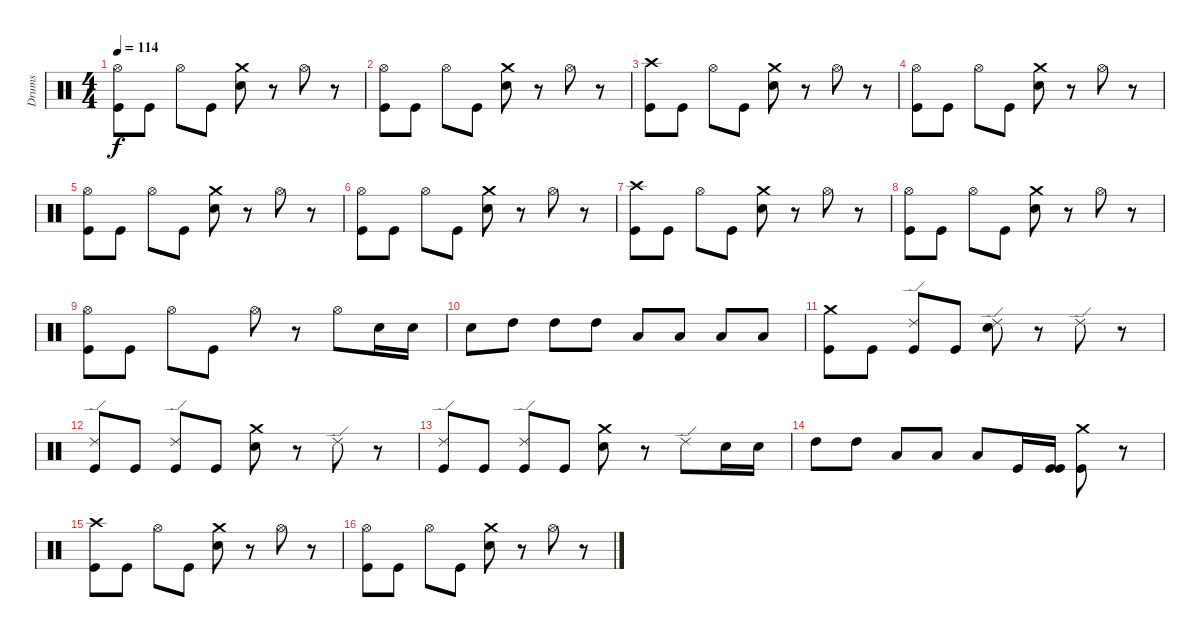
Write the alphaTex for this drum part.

\track ("Drums" "Drums") {instrument percussion}
\staff {score}
\articulation defaults
\ts (4 4)
\tempo 114
\clef neutral
\ks c
("Kick (hit)" "Hi-Hat (open)").8{dy f} "Kick (hit)".8 "Hi-Hat (open)".8 "Kick (hit)".8 ("Crash medium (hit)" "Electric Snare (hit)").8 r.8 "Hi-Hat (open)".8 r.8 |
("Kick (hit)" "Hi-Hat (open)").8 "Kick (hit)".8 "Hi-Hat (open)".8 "Kick (hit)".8 ("Crash medium (hit)" "Electric Snare (hit)").8 r.8 "Hi-Hat (open)".8 r.8 |
("Crash high (hit)" "Kick (hit)").8 "Kick (hit)".8 "Hi-Hat (open)".8 "Kick (hit)".8 ("Crash medium (hit)" "Electric Snare (hit)").8 r.8 "Hi-Hat (open)".8 r.8 |
("Kick (hit)" "Hi-Hat (open)").8 "Kick (hit)".8 "Hi-Hat (open)".8 "Kick (hit)".8 ("Crash medium (hit)" "Electric Snare (hit)").8 r.8 "Hi-Hat (open)".8 r.8 |
("Kick (hit)" "Hi-Hat (open)").8 "Kick (hit)".8 "Hi-Hat (open)".8 "Kick (hit)".8 ("Crash medium (hit)" "Electric Snare (hit)").8 r.8 "Hi-Hat (open)".8 r.8 |
("Kick (hit)" "Hi-Hat (open)").8 "Kick (hit)".8 "Hi-Hat (open)".8 "Kick (hit)".8 ("Crash medium (hit)" "Electric Snare (hit)").8 r.8 "Hi-Hat (open)".8 r.8 |
("Crash high (hit)" "Kick (hit)").8 "Kick (hit)".8 "Hi-Hat (open)".8 "Kick (hit)".8 ("Crash medium (hit)" "Electric Snare (hit)").8 r.8 "Hi-Hat (open)".8 r.8 |
("Kick (hit)" "Hi-Hat (open)").8 "Kick (hit)".8 "Hi-Hat (open)".8 "Kick (hit)".8 ("Crash medium (hit)" "Electric Snare (hit)").8 r.8 "Hi-Hat (open)".8 r.8 |
("Hi-Hat (open)" "Kick (hit)").8 "Kick (hit)".8 "Hi-Hat (open)".8 "Kick (hit)".8 "Hi-Hat (open)".8 r.8 "Hi-Hat (open)".8 "Electric Snare (hit)".16 "Electric Snare (hit)".16 |
"Electric Snare (hit)".8 "High Tom (hit)".8 "High Tom (hit)".8 "High Tom (hit)".8 "Low Tom (hit)".8 "Low Tom (hit)".8 "Low Floor Tom (hit)".8 "Low Floor Tom (hit)".8 |
("Kick (hit)" "Crash medium (hit)").8 "Kick (hit)".8 ("Kick (hit)" "Ride (edge) 2").8 "Kick (hit)".8 ("Electric Snare (hit)" "Ride (edge) 2").8 r.8 "Ride (edge) 2".8 r.8 |
("Ride (edge) 2" "Kick (hit)").8 "Kick (hit)".8 ("Kick (hit)" "Ride (edge) 2").8 "Kick (hit)".8 ("Crash medium (hit)" "Electric Snare (hit)").8 r.8 "Ride (edge) 2".8 r.8 |
("Ride (edge) 2" "Kick (hit)").8 "Kick (hit)".8 ("Kick (hit)" "Ride (edge) 2").8 "Kick (hit)".8 ("Crash medium (hit)" "Electric Snare (hit)").8 r.8 "Ride (edge) 2".8 "Electric Snare (hit)".16 "Electric Snare (hit)".16 |
"High Tom (hit)".8 "High Tom (hit)".8 "Low Tom (hit)".8 "Low Tom (hit)".8 "Low Floor Tom (hit)".8 "Kick (hit)".16 ("Kick (hit)" "Kick (hit)").16 ("Crash medium (hit)" "Kick (hit)").8 r.8 |
("Crash high (hit)" "Kick (hit)").8 "Kick (hit)".8 "Hi-Hat (open)".8 "Kick (hit)".8 ("Crash medium (hit)" "Electric Snare (hit)").8 r.8 "Hi-Hat (open)".8 r.8 |
("Kick (hit)" "Hi-Hat (open)").8 "Kick (hit)".8 "Hi-Hat (open)".8 "Kick (hit)".8 ("Crash medium (hit)" "Electric Snare (hit)").8 r.8 "Hi-Hat (open)".8 r.8
